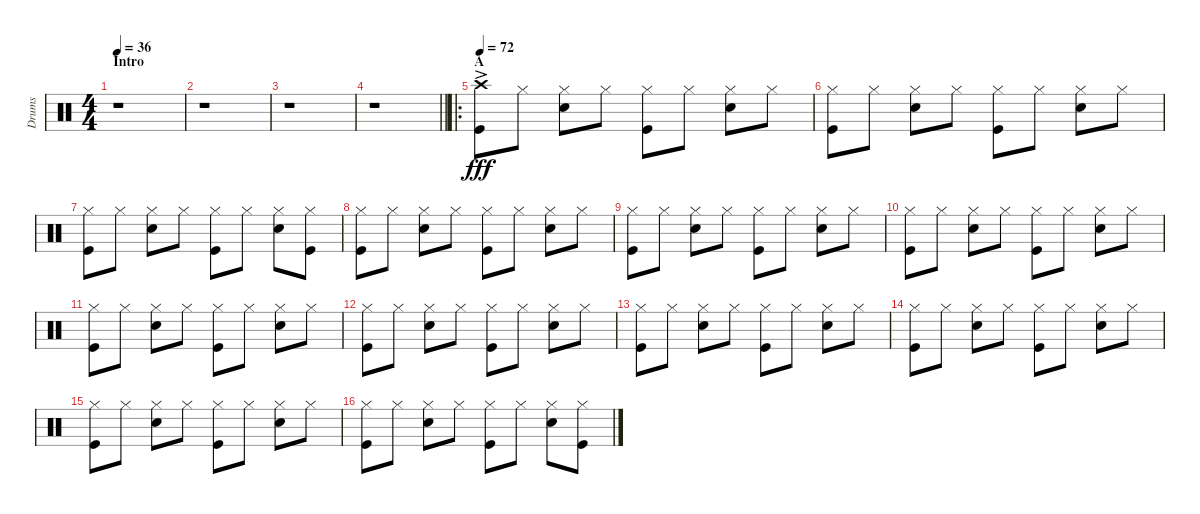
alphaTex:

\track ("Drums" "Drums") {instrument percussion}
\staff {score}
\articulation defaults
\ts (4 4)
\section ("" "Intro")
\tempo 36
\clef neutral
\ks c
r.1{dy fff} |
r.1 |
r.1 |
\barLineRight lightlight
r.1 |
\ro
\section ("" "A")
\tempo 72
("Crash high (hit)"{ac} "Kick (hit)").8 "Hi-Hat (closed)".8 ("Hi-Hat (closed)" "Snare (hit) 2").8 "Hi-Hat (closed)".8 ("Hi-Hat (closed)" "Kick (hit)").8 "Hi-Hat (closed)".8 ("Hi-Hat (closed)" "Snare (hit) 2").8 "Hi-Hat (closed)".8 |
("Hi-Hat (closed)" "Kick (hit)").8 "Hi-Hat (closed)".8 ("Hi-Hat (closed)" "Snare (hit) 2").8 "Hi-Hat (closed)".8 ("Hi-Hat (closed)" "Kick (hit)").8 "Hi-Hat (closed)".8 ("Hi-Hat (closed)" "Snare (hit) 2").8 "Hi-Hat (closed)".8 |
("Hi-Hat (closed)" "Kick (hit)").8 "Hi-Hat (closed)".8 ("Hi-Hat (closed)" "Snare (hit) 2").8 "Hi-Hat (closed)".8 ("Hi-Hat (closed)" "Kick (hit)").8 "Hi-Hat (closed)".8 ("Hi-Hat (closed)" "Snare (hit) 2").8 ("Hi-Hat (closed)" "Kick (hit)").8 |
("Hi-Hat (closed)" "Kick (hit)").8 "Hi-Hat (closed)".8 ("Hi-Hat (closed)" "Snare (hit) 2").8 "Hi-Hat (closed)".8 ("Hi-Hat (closed)" "Kick (hit)").8 "Hi-Hat (closed)".8 ("Hi-Hat (closed)" "Snare (hit) 2").8 "Hi-Hat (closed)".8 |
("Hi-Hat (closed)" "Kick (hit)").8 "Hi-Hat (closed)".8 ("Hi-Hat (closed)" "Snare (hit) 2").8 "Hi-Hat (closed)".8 ("Hi-Hat (closed)" "Kick (hit)").8 "Hi-Hat (closed)".8 ("Hi-Hat (closed)" "Snare (hit) 2").8 "Hi-Hat (closed)".8 |
("Hi-Hat (closed)" "Kick (hit)").8 "Hi-Hat (closed)".8 ("Hi-Hat (closed)" "Snare (hit) 2").8 "Hi-Hat (closed)".8 ("Hi-Hat (closed)" "Kick (hit)").8 "Hi-Hat (closed)".8 ("Hi-Hat (closed)" "Snare (hit) 2").8 "Hi-Hat (closed)".8 |
("Hi-Hat (closed)" "Kick (hit)").8 "Hi-Hat (closed)".8 ("Hi-Hat (closed)" "Snare (hit) 2").8 "Hi-Hat (closed)".8 ("Hi-Hat (closed)" "Kick (hit)").8 "Hi-Hat (closed)".8 ("Hi-Hat (closed)" "Snare (hit) 2").8 "Hi-Hat (closed)".8 |
("Hi-Hat (closed)" "Kick (hit)").8 "Hi-Hat (closed)".8 ("Hi-Hat (closed)" "Snare (hit) 2").8 "Hi-Hat (closed)".8 ("Hi-Hat (closed)" "Kick (hit)").8 "Hi-Hat (closed)".8 ("Hi-Hat (closed)" "Snare (hit) 2").8 "Hi-Hat (closed)".8 |
("Hi-Hat (closed)" "Kick (hit)").8 "Hi-Hat (closed)".8 ("Hi-Hat (closed)" "Snare (hit) 2").8 "Hi-Hat (closed)".8 ("Hi-Hat (closed)" "Kick (hit)").8 "Hi-Hat (closed)".8 ("Hi-Hat (closed)" "Snare (hit) 2").8 "Hi-Hat (closed)".8 |
("Hi-Hat (closed)" "Kick (hit)").8 "Hi-Hat (closed)".8 ("Hi-Hat (closed)" "Snare (hit) 2").8 "Hi-Hat (closed)".8 ("Hi-Hat (closed)" "Kick (hit)").8 "Hi-Hat (closed)".8 ("Hi-Hat (closed)" "Snare (hit) 2").8 "Hi-Hat (closed)".8 |
("Hi-Hat (closed)" "Kick (hit)").8 "Hi-Hat (closed)".8 ("Hi-Hat (closed)" "Snare (hit) 2").8 "Hi-Hat (closed)".8 ("Hi-Hat (closed)" "Kick (hit)").8 "Hi-Hat (closed)".8 ("Hi-Hat (closed)" "Snare (hit) 2").8 "Hi-Hat (closed)".8 |
("Hi-Hat (closed)" "Kick (hit)").8 "Hi-Hat (closed)".8 ("Hi-Hat (closed)" "Snare (hit) 2").8 "Hi-Hat (closed)".8 ("Hi-Hat (closed)" "Kick (hit)").8 "Hi-Hat (closed)".8 ("Hi-Hat (closed)" "Snare (hit) 2").8 ("Hi-Hat (closed)" "Kick (hit)").8
